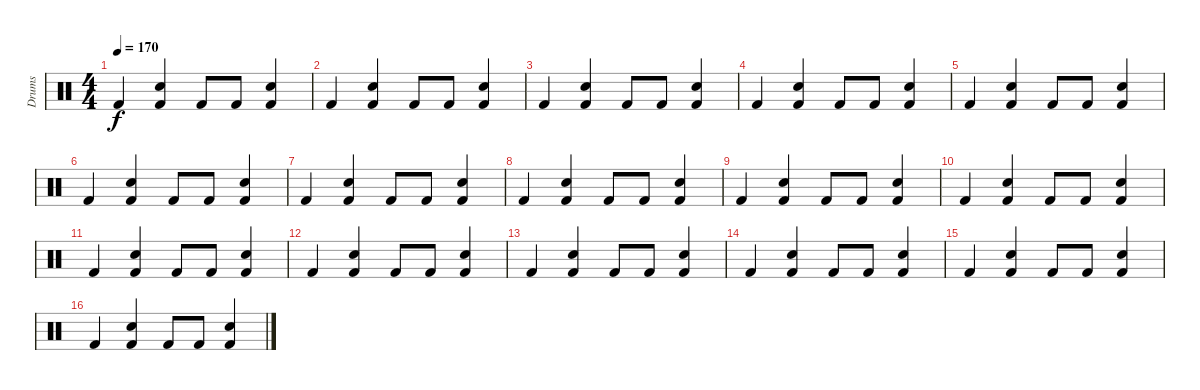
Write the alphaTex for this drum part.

\track ("Drums" "Drums") {instrument percussion}
\staff {score}
\articulation defaults
\ts (4 4)
\tempo 170
\clef neutral
\ks c "Kick (hit) 2".4{dy f}
("Kick (hit) 2" "Snare (hit) 2").4 "Kick (hit) 2".8 "Kick (hit) 2".8 ("Kick (hit) 2" "Snare (hit) 2").4 |
"Kick (hit) 2".4 ("Kick (hit) 2" "Snare (hit) 2").4 "Kick (hit) 2".8 "Kick (hit) 2".8 ("Kick (hit) 2" "Snare (hit) 2").4 |
"Kick (hit) 2".4 ("Kick (hit) 2" "Snare (hit) 2").4 "Kick (hit) 2".8 "Kick (hit) 2".8 ("Kick (hit) 2" "Snare (hit) 2").4 |
"Kick (hit) 2".4 ("Kick (hit) 2" "Snare (hit) 2").4 "Kick (hit) 2".8 "Kick (hit) 2".8 ("Kick (hit) 2" "Snare (hit) 2").4 |
"Kick (hit) 2".4 ("Kick (hit) 2" "Snare (hit) 2").4 "Kick (hit) 2".8 "Kick (hit) 2".8 ("Kick (hit) 2" "Snare (hit) 2").4 |
"Kick (hit) 2".4 ("Kick (hit) 2" "Snare (hit) 2").4 "Kick (hit) 2".8 "Kick (hit) 2".8 ("Kick (hit) 2" "Snare (hit) 2").4 |
"Kick (hit) 2".4 ("Kick (hit) 2" "Snare (hit) 2").4 "Kick (hit) 2".8 "Kick (hit) 2".8 ("Kick (hit) 2" "Snare (hit) 2").4 |
"Kick (hit) 2".4 ("Kick (hit) 2" "Snare (hit) 2").4 "Kick (hit) 2".8 "Kick (hit) 2".8 ("Kick (hit) 2" "Snare (hit) 2").4 |
"Kick (hit) 2".4 ("Kick (hit) 2" "Snare (hit) 2").4 "Kick (hit) 2".8 "Kick (hit) 2".8 ("Kick (hit) 2" "Snare (hit) 2").4 |
"Kick (hit) 2".4 ("Kick (hit) 2" "Snare (hit) 2").4 "Kick (hit) 2".8 "Kick (hit) 2".8 ("Kick (hit) 2" "Snare (hit) 2").4 |
"Kick (hit) 2".4 ("Kick (hit) 2" "Snare (hit) 2").4 "Kick (hit) 2".8 "Kick (hit) 2".8 ("Kick (hit) 2" "Snare (hit) 2").4 |
"Kick (hit) 2".4 ("Kick (hit) 2" "Snare (hit) 2").4 "Kick (hit) 2".8 "Kick (hit) 2".8 ("Kick (hit) 2" "Snare (hit) 2").4 |
"Kick (hit) 2".4 ("Kick (hit) 2" "Snare (hit) 2").4 "Kick (hit) 2".8 "Kick (hit) 2".8 ("Kick (hit) 2" "Snare (hit) 2").4 |
"Kick (hit) 2".4 ("Kick (hit) 2" "Snare (hit) 2").4 "Kick (hit) 2".8 "Kick (hit) 2".8 ("Kick (hit) 2" "Snare (hit) 2").4 |
"Kick (hit) 2".4 ("Kick (hit) 2" "Snare (hit) 2").4 "Kick (hit) 2".8 "Kick (hit) 2".8 ("Kick (hit) 2" "Snare (hit) 2").4 |
"Kick (hit) 2".4 ("Kick (hit) 2" "Snare (hit) 2").4 "Kick (hit) 2".8 "Kick (hit) 2".8 ("Kick (hit) 2" "Snare (hit) 2").4
